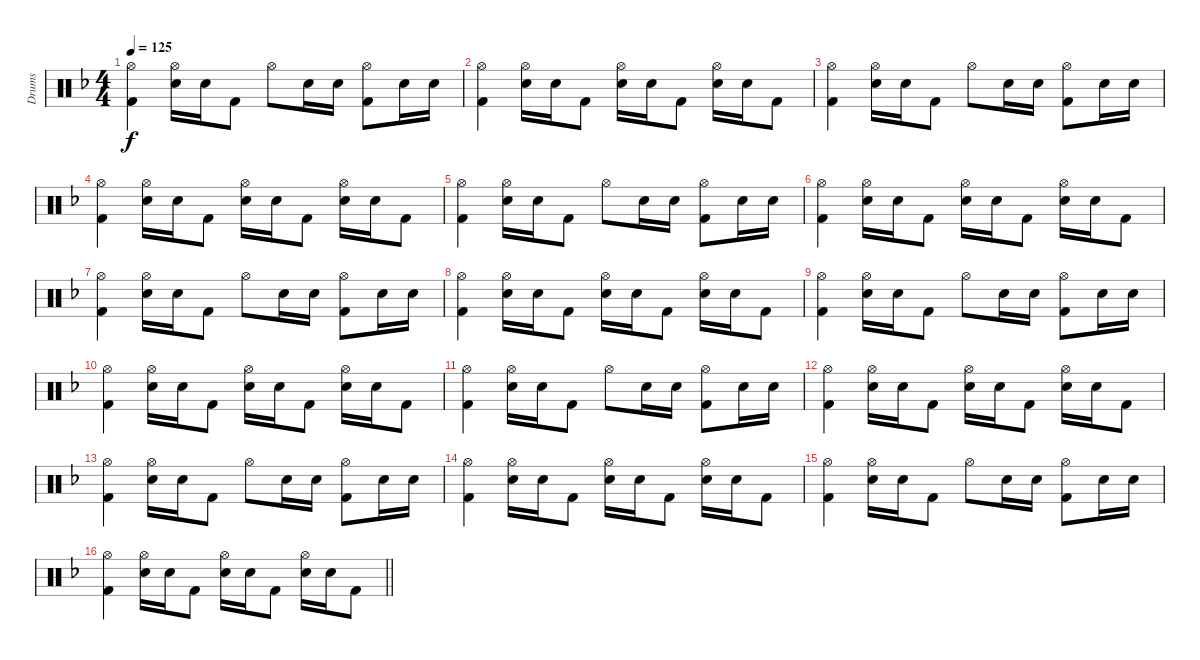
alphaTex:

\track ("Drums" "Drums") {instrument percussion}
\staff {score}
\articulation defaults
\ts (4 4)
\tempo 125
\clef neutral
\ks f
("Hi-Hat (open)" "Kick (hit) 2").4{dy f} ("Hi-Hat (open)" "Snare (hit) 2").16 "Snare (hit) 2".16 "Kick (hit) 2".8 "Hi-Hat (open)".8 "Snare (hit) 2".16 "Snare (hit) 2".16 ("Hi-Hat (open)" "Kick (hit) 2").8 "Snare (hit) 2".16 "Snare (hit) 2".16 |
("Hi-Hat (open)" "Kick (hit) 2").4 ("Hi-Hat (open)" "Snare (hit) 2").16 "Snare (hit) 2".16 "Kick (hit) 2".8 ("Hi-Hat (open)" "Snare (hit) 2").16 "Snare (hit) 2".16 "Kick (hit) 2".8 ("Hi-Hat (open)" "Snare (hit) 2").16 "Snare (hit) 2".16 "Kick (hit) 2".8 |
("Hi-Hat (open)" "Kick (hit) 2").4 ("Hi-Hat (open)" "Snare (hit) 2").16 "Snare (hit) 2".16 "Kick (hit) 2".8 "Hi-Hat (open)".8 "Snare (hit) 2".16 "Snare (hit) 2".16 ("Hi-Hat (open)" "Kick (hit) 2").8 "Snare (hit) 2".16 "Snare (hit) 2".16 |
("Hi-Hat (open)" "Kick (hit) 2").4 ("Hi-Hat (open)" "Snare (hit) 2").16 "Snare (hit) 2".16 "Kick (hit) 2".8 ("Hi-Hat (open)" "Snare (hit) 2").16 "Snare (hit) 2".16 "Kick (hit) 2".8 ("Hi-Hat (open)" "Snare (hit) 2").16 "Snare (hit) 2".16 "Kick (hit) 2".8 |
("Hi-Hat (open)" "Kick (hit) 2").4 ("Hi-Hat (open)" "Snare (hit) 2").16 "Snare (hit) 2".16 "Kick (hit) 2".8 "Hi-Hat (open)".8 "Snare (hit) 2".16 "Snare (hit) 2".16 ("Hi-Hat (open)" "Kick (hit) 2").8 "Snare (hit) 2".16 "Snare (hit) 2".16 |
("Hi-Hat (open)" "Kick (hit) 2").4 ("Hi-Hat (open)" "Snare (hit) 2").16 "Snare (hit) 2".16 "Kick (hit) 2".8 ("Hi-Hat (open)" "Snare (hit) 2").16 "Snare (hit) 2".16 "Kick (hit) 2".8 ("Hi-Hat (open)" "Snare (hit) 2").16 "Snare (hit) 2".16 "Kick (hit) 2".8 |
("Hi-Hat (open)" "Kick (hit) 2").4 ("Hi-Hat (open)" "Snare (hit) 2").16 "Snare (hit) 2".16 "Kick (hit) 2".8 "Hi-Hat (open)".8 "Snare (hit) 2".16 "Snare (hit) 2".16 ("Hi-Hat (open)" "Kick (hit) 2").8 "Snare (hit) 2".16 "Snare (hit) 2".16 |
("Hi-Hat (open)" "Kick (hit) 2").4 ("Hi-Hat (open)" "Snare (hit) 2").16 "Snare (hit) 2".16 "Kick (hit) 2".8 ("Hi-Hat (open)" "Snare (hit) 2").16 "Snare (hit) 2".16 "Kick (hit) 2".8 ("Hi-Hat (open)" "Snare (hit) 2").16 "Snare (hit) 2".16 "Kick (hit) 2".8 |
("Hi-Hat (open)" "Kick (hit) 2").4 ("Hi-Hat (open)" "Snare (hit) 2").16 "Snare (hit) 2".16 "Kick (hit) 2".8 "Hi-Hat (open)".8 "Snare (hit) 2".16 "Snare (hit) 2".16 ("Hi-Hat (open)" "Kick (hit) 2").8 "Snare (hit) 2".16 "Snare (hit) 2".16 |
("Hi-Hat (open)" "Kick (hit) 2").4 ("Hi-Hat (open)" "Snare (hit) 2").16 "Snare (hit) 2".16 "Kick (hit) 2".8 ("Hi-Hat (open)" "Snare (hit) 2").16 "Snare (hit) 2".16 "Kick (hit) 2".8 ("Hi-Hat (open)" "Snare (hit) 2").16 "Snare (hit) 2".16 "Kick (hit) 2".8 |
("Hi-Hat (open)" "Kick (hit) 2").4 ("Hi-Hat (open)" "Snare (hit) 2").16 "Snare (hit) 2".16 "Kick (hit) 2".8 "Hi-Hat (open)".8 "Snare (hit) 2".16 "Snare (hit) 2".16 ("Hi-Hat (open)" "Kick (hit) 2").8 "Snare (hit) 2".16 "Snare (hit) 2".16 |
("Hi-Hat (open)" "Kick (hit) 2").4 ("Hi-Hat (open)" "Snare (hit) 2").16 "Snare (hit) 2".16 "Kick (hit) 2".8 ("Hi-Hat (open)" "Snare (hit) 2").16 "Snare (hit) 2".16 "Kick (hit) 2".8 ("Hi-Hat (open)" "Snare (hit) 2").16 "Snare (hit) 2".16 "Kick (hit) 2".8 |
("Hi-Hat (open)" "Kick (hit) 2").4 ("Hi-Hat (open)" "Snare (hit) 2").16 "Snare (hit) 2".16 "Kick (hit) 2".8 "Hi-Hat (open)".8 "Snare (hit) 2".16 "Snare (hit) 2".16 ("Hi-Hat (open)" "Kick (hit) 2").8 "Snare (hit) 2".16 "Snare (hit) 2".16 |
("Hi-Hat (open)" "Kick (hit) 2").4 ("Hi-Hat (open)" "Snare (hit) 2").16 "Snare (hit) 2".16 "Kick (hit) 2".8 ("Hi-Hat (open)" "Snare (hit) 2").16 "Snare (hit) 2".16 "Kick (hit) 2".8 ("Hi-Hat (open)" "Snare (hit) 2").16 "Snare (hit) 2".16 "Kick (hit) 2".8 |
("Hi-Hat (open)" "Kick (hit) 2").4 ("Hi-Hat (open)" "Snare (hit) 2").16 "Snare (hit) 2".16 "Kick (hit) 2".8 "Hi-Hat (open)".8 "Snare (hit) 2".16 "Snare (hit) 2".16 ("Hi-Hat (open)" "Kick (hit) 2").8 "Snare (hit) 2".16 "Snare (hit) 2".16 |
\barLineRight lightlight
("Hi-Hat (open)" "Kick (hit) 2").4 ("Hi-Hat (open)" "Snare (hit) 2").16 "Snare (hit) 2".16 "Kick (hit) 2".8 ("Hi-Hat (open)" "Snare (hit) 2").16 "Snare (hit) 2".16 "Kick (hit) 2".8 ("Hi-Hat (open)" "Snare (hit) 2").16 "Snare (hit) 2".16 "Kick (hit) 2".8
